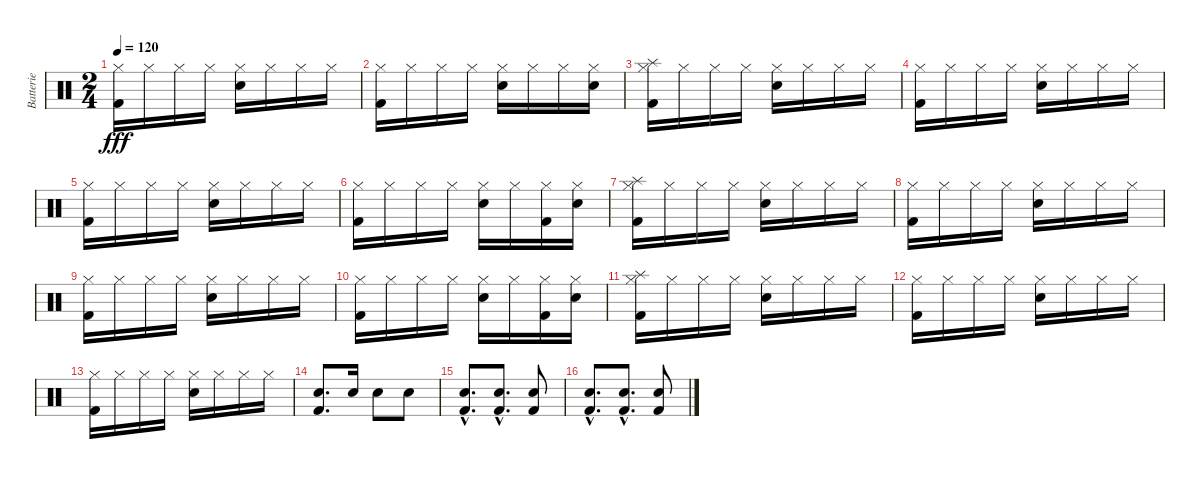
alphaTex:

\track ("Batterie" "Batterie") {instrument percussion}
\staff {score}
\articulation defaults
\ts (2 4)
\tempo 120
\clef neutral
\ks c
("Kick (hit) 2" "Hi-Hat (closed)").16{dy fff} "Hi-Hat (closed)".16 "Hi-Hat (closed)".16 "Hi-Hat (closed)".16 ("Hi-Hat (closed)" "Electric Snare (hit)").16 "Hi-Hat (closed)".16 "Hi-Hat (closed)".16 "Hi-Hat (closed)".16 |
("Kick (hit) 2" "Hi-Hat (closed)").16 "Hi-Hat (closed)".16 "Hi-Hat (closed)".16 "Hi-Hat (closed)".16 ("Electric Snare (hit)" "Hi-Hat (closed)").16 "Hi-Hat (closed)".16 "Hi-Hat (closed)".16 ("Electric Snare (hit)" "Hi-Hat (closed)").16 |
("Kick (hit) 2" "Hi-Hat (closed)" "Splash (hit)").16 "Hi-Hat (closed)".16 "Hi-Hat (closed)".16 "Hi-Hat (closed)".16 ("Hi-Hat (closed)" "Electric Snare (hit)").16 "Hi-Hat (closed)".16 "Hi-Hat (closed)".16 "Hi-Hat (closed)".16 |
("Kick (hit) 2" "Hi-Hat (closed)").16 "Hi-Hat (closed)".16 "Hi-Hat (closed)".16 "Hi-Hat (closed)".16 ("Hi-Hat (closed)" "Electric Snare (hit)").16 "Hi-Hat (closed)".16 "Hi-Hat (closed)".16 "Hi-Hat (closed)".16 |
("Kick (hit) 2" "Hi-Hat (closed)").16 "Hi-Hat (closed)".16 "Hi-Hat (closed)".16 "Hi-Hat (closed)".16 ("Hi-Hat (closed)" "Electric Snare (hit)").16 "Hi-Hat (closed)".16 "Hi-Hat (closed)".16 "Hi-Hat (closed)".16 |
("Kick (hit) 2" "Hi-Hat (closed)").16 "Hi-Hat (closed)".16 "Hi-Hat (closed)".16 "Hi-Hat (closed)".16 ("Electric Snare (hit)" "Hi-Hat (closed)").16 "Hi-Hat (closed)".16 ("Kick (hit) 2" "Hi-Hat (closed)").16 ("Electric Snare (hit)" "Hi-Hat (closed)").16 |
("Kick (hit) 2" "Hi-Hat (closed)" "Splash (hit)").16 "Hi-Hat (closed)".16 "Hi-Hat (closed)".16 "Hi-Hat (closed)".16 ("Hi-Hat (closed)" "Electric Snare (hit)").16 "Hi-Hat (closed)".16 "Hi-Hat (closed)".16 "Hi-Hat (closed)".16 |
("Kick (hit) 2" "Hi-Hat (closed)").16 "Hi-Hat (closed)".16 "Hi-Hat (closed)".16 "Hi-Hat (closed)".16 ("Hi-Hat (closed)" "Electric Snare (hit)").16 "Hi-Hat (closed)".16 "Hi-Hat (closed)".16 "Hi-Hat (closed)".16 |
("Kick (hit) 2" "Hi-Hat (closed)").16 "Hi-Hat (closed)".16 "Hi-Hat (closed)".16 "Hi-Hat (closed)".16 ("Hi-Hat (closed)" "Electric Snare (hit)").16 "Hi-Hat (closed)".16 "Hi-Hat (closed)".16 "Hi-Hat (closed)".16 |
("Kick (hit) 2" "Hi-Hat (closed)").16 "Hi-Hat (closed)".16 "Hi-Hat (closed)".16 "Hi-Hat (closed)".16 ("Electric Snare (hit)" "Hi-Hat (closed)").16 "Hi-Hat (closed)".16 ("Kick (hit) 2" "Hi-Hat (closed)").16 ("Electric Snare (hit)" "Hi-Hat (closed)").16 |
("Kick (hit) 2" "Hi-Hat (closed)" "Splash (hit)").16 "Hi-Hat (closed)".16 "Hi-Hat (closed)".16 "Hi-Hat (closed)".16 ("Hi-Hat (closed)" "Electric Snare (hit)").16 "Hi-Hat (closed)".16 "Hi-Hat (closed)".16 "Hi-Hat (closed)".16 |
("Kick (hit) 2" "Hi-Hat (closed)").16 "Hi-Hat (closed)".16 "Hi-Hat (closed)".16 "Hi-Hat (closed)".16 ("Hi-Hat (closed)" "Electric Snare (hit)").16 "Hi-Hat (closed)".16 "Hi-Hat (closed)".16 "Hi-Hat (closed)".16 |
("Kick (hit) 2" "Hi-Hat (closed)").16 "Hi-Hat (closed)".16 "Hi-Hat (closed)".16 "Hi-Hat (closed)".16 ("Hi-Hat (closed)" "Electric Snare (hit)").16 "Hi-Hat (closed)".16 "Hi-Hat (closed)".16 "Hi-Hat (closed)".16 |
("Kick (hit) 2" "Electric Snare (hit)").8{d} "Electric Snare (hit)".16 "Electric Snare (hit)".8 "Electric Snare (hit)".8 |
("Kick (hit) 2"{hac} "Electric Snare (hit)"{hac}).8{d} ("Kick (hit) 2"{hac} "Electric Snare (hit)"{hac}).8{d} ("Kick (hit) 2" "Electric Snare (hit)").8 |
("Kick (hit) 2"{hac} "Electric Snare (hit)"{hac}).8{d} ("Kick (hit) 2"{hac} "Electric Snare (hit)"{hac}).8{d} ("Kick (hit) 2" "Electric Snare (hit)").8
